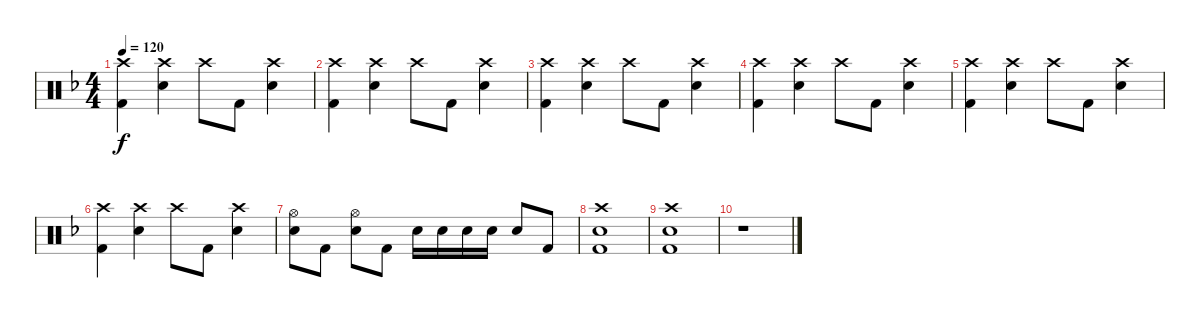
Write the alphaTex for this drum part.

\track "" {mute instrument percussion}
\staff {score}
\articulation defaults
\ts (4 4)
\tempo 120
\clef neutral
\ks f
("Kick (hit) 2" "Crash high (hit)").4{dy f} ("Snare (hit) 2" "Crash high (hit)").4 "Crash high (hit)".8 "Kick (hit) 2".8 ("Snare (hit) 2" "Crash high (hit)").4 |
("Kick (hit) 2" "Crash high (hit)").4 ("Snare (hit) 2" "Crash high (hit)").4 "Crash high (hit)".8 "Kick (hit) 2".8 ("Snare (hit) 2" "Crash high (hit)").4 |
("Kick (hit) 2" "Crash high (hit)").4 ("Snare (hit) 2" "Crash high (hit)").4 "Crash high (hit)".8 "Kick (hit) 2".8 ("Snare (hit) 2" "Crash high (hit)").4 |
("Kick (hit) 2" "Crash high (hit)").4 ("Snare (hit) 2" "Crash high (hit)").4 "Crash high (hit)".8 "Kick (hit) 2".8 ("Snare (hit) 2" "Crash high (hit)").4 |
("Kick (hit) 2" "Crash high (hit)").4 ("Snare (hit) 2" "Crash high (hit)").4 "Crash high (hit)".8 "Kick (hit) 2".8 ("Snare (hit) 2" "Crash high (hit)").4 |
("Kick (hit) 2" "Crash high (hit)").4 ("Snare (hit) 2" "Crash high (hit)").4 "Crash high (hit)".8 "Kick (hit) 2".8 ("Snare (hit) 2" "Crash high (hit)").4 |
("Snare (hit) 2" "Hi-Hat (open)").8 "Kick (hit) 2".8 ("Snare (hit) 2" "Hi-Hat (open)").8 "Kick (hit) 2".8 "Snare (hit) 2".16 "Snare (hit) 2".16 "Snare (hit) 2".16 "Snare (hit) 2".16 "Snare (hit) 2".8 "Kick (hit) 2".8 |
("Kick (hit) 2" "Snare (hit) 2" "Crash high (hit)").1 |
("Kick (hit) 2" "Snare (hit) 2" "Crash high (hit)").1 |
r.1
